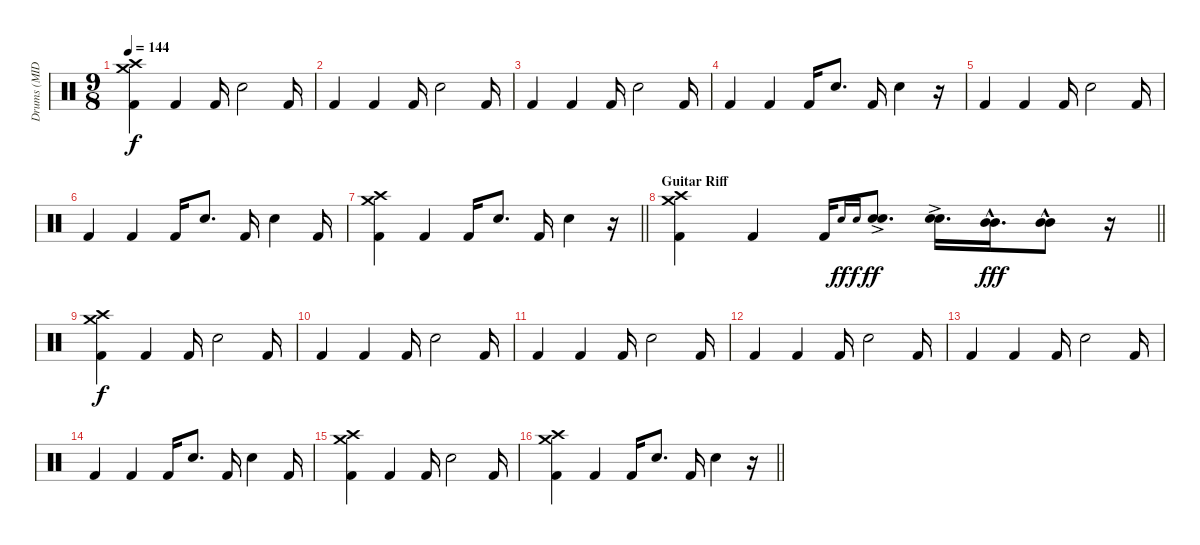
\track ("Drums (MIDI!)" "Drums (MID") {instrument percussion}
\staff {score}
\articulation defaults
\ts (9 8)
\tempo 144
\clef neutral
\ks c
("Crash medium (hit)" "Crash high (hit)" "Kick (hit) 2").4{dy f} "Kick (hit) 2".4 "Kick (hit) 2".16 "Electric Snare (hit)".2 "Kick (hit) 2".16 |
"Kick (hit) 2".4 "Kick (hit) 2".4 "Kick (hit) 2".16 "Electric Snare (hit)".2 "Kick (hit) 2".16 |
"Kick (hit) 2".4 "Kick (hit) 2".4 "Kick (hit) 2".16 "Electric Snare (hit)".2 "Kick (hit) 2".16 |
"Kick (hit) 2".4 "Kick (hit) 2".4 "Kick (hit) 2".16 "Electric Snare (hit)".8{d} "Kick (hit) 2".16 "Electric Snare (hit)".4 r.16 |
"Kick (hit) 2".4 "Kick (hit) 2".4 "Kick (hit) 2".16 "Electric Snare (hit)".2 "Kick (hit) 2".16 |
"Kick (hit) 2".4 "Kick (hit) 2".4 "Kick (hit) 2".16 "Electric Snare (hit)".8{d} "Kick (hit) 2".16 "Electric Snare (hit)".4 "Kick (hit) 2".16 |
\barLineRight lightlight
("Crash medium (hit)" "Crash high (hit)" "Kick (hit) 2").4 "Kick (hit) 2".4 "Kick (hit) 2".16 "Electric Snare (hit)".8{d} "Kick (hit) 2".16 "Electric Snare (hit)".4 r.16 |
\section ("" "Guitar Riff")
\barLineRight lightlight
("Crash medium (hit)" "Crash high (hit)" "Kick (hit) 2").4 "Kick (hit) 2".4 "Kick (hit) 2".16 "Electric Snare (hit)".16{gr onbeat dy ff} "Electric Snare (hit)".16{gr onbeat dy f} ("Electric Snare (hit)"{ac} "Electric Snare (hit)").8{d dy ff} ("Electric Snare (hit)"{ac} "Electric Snare (hit)").16{d} ("Mid Tom (hit)"{hac} "Mid Tom (hit)").16{d dy fff} ("Mid Tom (hit)"{hac} "Mid Tom (hit)").8 r.16 |
("Crash medium (hit)" "Crash high (hit)" "Kick (hit) 2").4{dy f} "Kick (hit) 2".4 "Kick (hit) 2".16 "Electric Snare (hit)".2 "Kick (hit) 2".16 |
"Kick (hit) 2".4 "Kick (hit) 2".4 "Kick (hit) 2".16 "Electric Snare (hit)".2 "Kick (hit) 2".16 |
"Kick (hit) 2".4 "Kick (hit) 2".4 "Kick (hit) 2".16 "Electric Snare (hit)".2 "Kick (hit) 2".16 |
"Kick (hit) 2".4 "Kick (hit) 2".4 "Kick (hit) 2".16 "Electric Snare (hit)".2 "Kick (hit) 2".16 |
"Kick (hit) 2".4 "Kick (hit) 2".4 "Kick (hit) 2".16 "Electric Snare (hit)".2 "Kick (hit) 2".16 |
"Kick (hit) 2".4 "Kick (hit) 2".4 "Kick (hit) 2".16 "Electric Snare (hit)".8{d} "Kick (hit) 2".16 "Electric Snare (hit)".4 "Kick (hit) 2".16 |
("Crash medium (hit)" "Crash high (hit)" "Kick (hit) 2").4 "Kick (hit) 2".4 "Kick (hit) 2".16 "Electric Snare (hit)".2 "Kick (hit) 2".16 |
\barLineRight lightlight
("Crash medium (hit)" "Crash high (hit)" "Kick (hit) 2").4 "Kick (hit) 2".4 "Kick (hit) 2".16 "Electric Snare (hit)".8{d} "Kick (hit) 2".16 "Electric Snare (hit)".4 r.16
